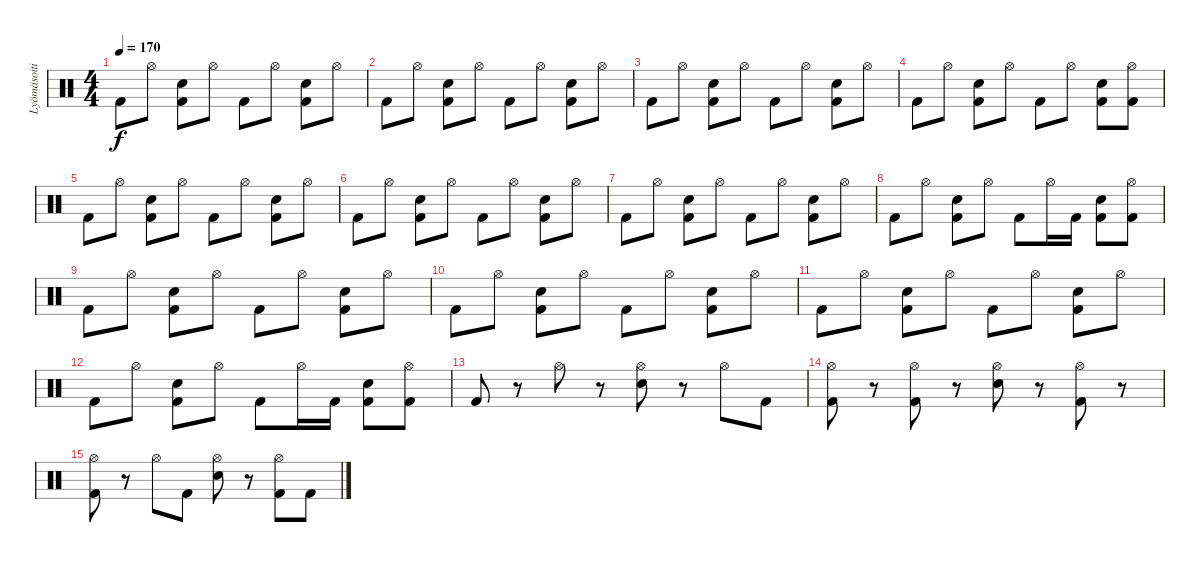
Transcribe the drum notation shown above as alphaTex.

\track ("Lyömäsoitin" "Lyömäsoiti") {instrument percussion}
\staff {score}
\articulation defaults
\ts (4 4)
\tempo 170
\clef neutral
\ks c "Kick (hit) 2".8{dy f} "Hi-Hat (open)".8
("Snare (hit) 2" "Kick (hit) 2").8 "Hi-Hat (open)".8 "Kick (hit) 2".8 "Hi-Hat (open)".8 ("Snare (hit) 2" "Kick (hit) 2").8 "Hi-Hat (open)".8 |
"Kick (hit) 2".8 "Hi-Hat (open)".8 ("Snare (hit) 2" "Kick (hit) 2").8 "Hi-Hat (open)".8 "Kick (hit) 2".8 "Hi-Hat (open)".8 ("Snare (hit) 2" "Kick (hit) 2").8 "Hi-Hat (open)".8 |
"Kick (hit) 2".8 "Hi-Hat (open)".8 ("Snare (hit) 2" "Kick (hit) 2").8 "Hi-Hat (open)".8 "Kick (hit) 2".8 "Hi-Hat (open)".8 ("Snare (hit) 2" "Kick (hit) 2").8 "Hi-Hat (open)".8 |
"Kick (hit) 2".8 "Hi-Hat (open)".8 ("Snare (hit) 2" "Kick (hit) 2").8 "Hi-Hat (open)".8 "Kick (hit) 2".8 "Hi-Hat (open)".8 ("Snare (hit) 2" "Kick (hit) 2").8 ("Hi-Hat (open)" "Kick (hit) 2").8 |
"Kick (hit) 2".8 "Hi-Hat (open)".8 ("Snare (hit) 2" "Kick (hit) 2").8 "Hi-Hat (open)".8 "Kick (hit) 2".8 "Hi-Hat (open)".8 ("Snare (hit) 2" "Kick (hit) 2").8 "Hi-Hat (open)".8 |
"Kick (hit) 2".8 "Hi-Hat (open)".8 ("Snare (hit) 2" "Kick (hit) 2").8 "Hi-Hat (open)".8 "Kick (hit) 2".8 "Hi-Hat (open)".8 ("Snare (hit) 2" "Kick (hit) 2").8 "Hi-Hat (open)".8 |
"Kick (hit) 2".8 "Hi-Hat (open)".8 ("Snare (hit) 2" "Kick (hit) 2").8 "Hi-Hat (open)".8 "Kick (hit) 2".8 "Hi-Hat (open)".8 ("Snare (hit) 2" "Kick (hit) 2").8 "Hi-Hat (open)".8 |
"Kick (hit) 2".8 "Hi-Hat (open)".8 ("Snare (hit) 2" "Kick (hit) 2").8 "Hi-Hat (open)".8 "Kick (hit) 2".8 "Hi-Hat (open)".16 "Kick (hit) 2".16 ("Snare (hit) 2" "Kick (hit) 2").8 ("Hi-Hat (open)" "Kick (hit) 2").8 |
"Kick (hit) 2".8 "Hi-Hat (open)".8 ("Snare (hit) 2" "Kick (hit) 2").8 "Hi-Hat (open)".8 "Kick (hit) 2".8 "Hi-Hat (open)".8 ("Snare (hit) 2" "Kick (hit) 2").8 "Hi-Hat (open)".8 |
"Kick (hit) 2".8 "Hi-Hat (open)".8 ("Snare (hit) 2" "Kick (hit) 2").8 "Hi-Hat (open)".8 "Kick (hit) 2".8 "Hi-Hat (open)".8 ("Snare (hit) 2" "Kick (hit) 2").8 "Hi-Hat (open)".8 |
"Kick (hit) 2".8 "Hi-Hat (open)".8 ("Snare (hit) 2" "Kick (hit) 2").8 "Hi-Hat (open)".8 "Kick (hit) 2".8 "Hi-Hat (open)".8 ("Snare (hit) 2" "Kick (hit) 2").8 "Hi-Hat (open)".8 |
"Kick (hit) 2".8 "Hi-Hat (open)".8 ("Snare (hit) 2" "Kick (hit) 2").8 "Hi-Hat (open)".8 "Kick (hit) 2".8 "Hi-Hat (open)".16 "Kick (hit) 2".16 ("Snare (hit) 2" "Kick (hit) 2").8 ("Hi-Hat (open)" "Kick (hit) 2").8 |
"Kick (hit) 2".8 r.8 "Hi-Hat (open)".8 r.8 ("Hi-Hat (open)" "Snare (hit) 2").8 r.8 "Hi-Hat (open)".8 "Kick (hit) 2".8 |
("Hi-Hat (open)" "Kick (hit) 2").8 r.8 ("Hi-Hat (open)" "Kick (hit) 2").8 r.8 ("Hi-Hat (open)" "Snare (hit) 2").8 r.8 ("Hi-Hat (open)" "Kick (hit) 2").8 r.8 |
("Hi-Hat (open)" "Kick (hit) 2").8 r.8 "Hi-Hat (open)".8 "Kick (hit) 2".8 ("Hi-Hat (open)" "Snare (hit) 2").8 r.8 ("Hi-Hat (open)" "Kick (hit) 2").8 "Kick (hit) 2".8
